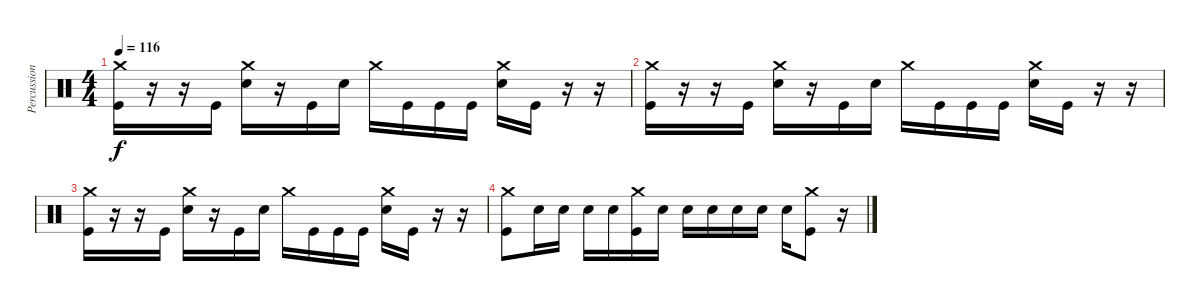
\track ("Percussion" "Percussion") {instrument percussion}
\staff {score}
\articulation defaults
\ts (4 4)
\tempo 116
\clef neutral
\ks c
("Crash medium (hit)" "Kick (hit)").16{dy f} r.16 r.16 "Kick (hit)".16 ("Crash medium (hit)" "Electric Snare (hit)").16 r.16 "Kick (hit)".16 "Electric Snare (hit)".16 "Crash medium (hit)".16 "Kick (hit)".16 "Kick (hit)".16 "Kick (hit)".16 ("Crash medium (hit)" "Electric Snare (hit)").16 "Kick (hit)".16 r.16 r.16 |
("Crash medium (hit)" "Kick (hit)").16 r.16 r.16 "Kick (hit)".16 ("Crash medium (hit)" "Electric Snare (hit)").16 r.16 "Kick (hit)".16 "Electric Snare (hit)".16 "Crash medium (hit)".16 "Kick (hit)".16 "Kick (hit)".16 "Kick (hit)".16 ("Crash medium (hit)" "Electric Snare (hit)").16 "Kick (hit)".16 r.16 r.16 |
("Crash medium (hit)" "Kick (hit)").16 r.16 r.16 "Kick (hit)".16 ("Crash medium (hit)" "Electric Snare (hit)").16 r.16 "Kick (hit)".16 "Electric Snare (hit)".16 "Crash medium (hit)".16 "Kick (hit)".16 "Kick (hit)".16 "Kick (hit)".16 ("Crash medium (hit)" "Electric Snare (hit)").16 "Kick (hit)".16 r.16 r.16 |
("Crash medium (hit)" "Kick (hit)").8 "Electric Snare (hit)".16 "Electric Snare (hit)".16 "Electric Snare (hit)".16 "Electric Snare (hit)".16 ("Crash medium (hit)" "Kick (hit)").16 "Electric Snare (hit)".16 "Electric Snare (hit)".16 "Electric Snare (hit)".16 "Electric Snare (hit)".16 "Electric Snare (hit)".16 "Electric Snare (hit)".16 ("Crash medium (hit)" "Kick (hit)").8 r.16
